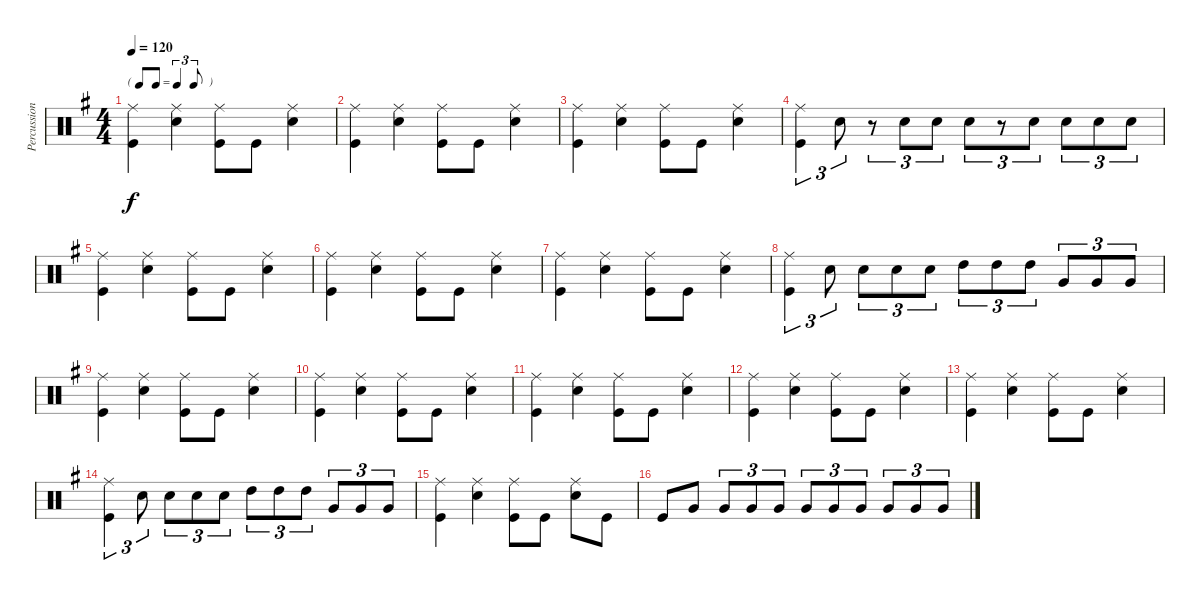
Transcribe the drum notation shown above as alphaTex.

\track ("Percussion" "Percussion") {instrument percussion}
\staff {score}
\articulation defaults
\ts (4 4)
\tf triplet8th
\tempo 120
\clef neutral
\ks g
("Ride (middle)" "Kick (hit)").4{dy f} ("Ride (middle)" "Snare (hit) 2").4 ("Ride (middle)" "Kick (hit)").8 "Kick (hit)".8 ("Ride (middle)" "Snare (hit) 2").4 |
("Ride (middle)" "Kick (hit)").4 ("Ride (middle)" "Snare (hit) 2").4 ("Ride (middle)" "Kick (hit)").8 "Kick (hit)".8 ("Ride (middle)" "Snare (hit) 2").4 |
("Ride (middle)" "Kick (hit)").4 ("Ride (middle)" "Snare (hit) 2").4 ("Ride (middle)" "Kick (hit)").8 "Kick (hit)".8 ("Ride (middle)" "Snare (hit) 2").4 |
("Ride (middle)" "Kick (hit)").4{tu (3 2)} "Snare (hit) 2".8{tu (3 2)} r.8{tu (3 2)} "Snare (hit) 2".8{tu (3 2)} "Snare (hit) 2".8{tu (3 2)} "Snare (hit) 2".8{tu (3 2)} r.8{tu (3 2)} "Snare (hit) 2".8{tu (3 2)} "Snare (hit) 2".8{tu (3 2)} "Snare (hit) 2".8{tu (3 2)} "Snare (hit) 2".8{tu (3 2)} |
("Ride (middle)" "Kick (hit)").4 ("Ride (middle)" "Snare (hit) 2").4 ("Ride (middle)" "Kick (hit)").8 "Kick (hit)".8 ("Ride (middle)" "Snare (hit) 2").4 |
("Ride (middle)" "Kick (hit)").4 ("Ride (middle)" "Snare (hit) 2").4 ("Ride (middle)" "Kick (hit)").8 "Kick (hit)".8 ("Ride (middle)" "Snare (hit) 2").4 |
("Ride (middle)" "Kick (hit)").4 ("Ride (middle)" "Snare (hit) 2").4 ("Ride (middle)" "Kick (hit)").8 "Kick (hit)".8 ("Ride (middle)" "Snare (hit) 2").4 |
("Ride (middle)" "Kick (hit)").4{tu (3 2)} "Snare (hit) 2".8{tu (3 2)} "Snare (hit) 2".8{tu (3 2)} "Snare (hit) 2".8{tu (3 2)} "Snare (hit) 2".8{tu (3 2)} "High Tom (hit)".8{tu (3 2)} "High Tom (hit)".8{tu (3 2)} "High Tom (hit)".8{tu (3 2)} "Very Low Tom (hit)".8{tu (3 2)} "Very Low Tom (hit)".8{tu (3 2)} "Very Low Tom (hit)".8{tu (3 2)} |
("Ride (middle)" "Kick (hit)").4 ("Ride (middle)" "Snare (hit) 2").4 ("Ride (middle)" "Kick (hit)").8 "Kick (hit)".8 ("Ride (middle)" "Snare (hit) 2").4 |
("Ride (middle)" "Kick (hit)").4 ("Ride (middle)" "Snare (hit) 2").4 ("Ride (middle)" "Kick (hit)").8 "Kick (hit)".8 ("Ride (middle)" "Snare (hit) 2").4 |
("Ride (middle)" "Kick (hit)").4 ("Ride (middle)" "Snare (hit) 2").4 ("Ride (middle)" "Kick (hit)").8 "Kick (hit)".8 ("Ride (middle)" "Snare (hit) 2").4 |
("Ride (middle)" "Kick (hit)").4 ("Ride (middle)" "Snare (hit) 2").4 ("Ride (middle)" "Kick (hit)").8 "Kick (hit)".8 ("Ride (middle)" "Snare (hit) 2").4 |
("Ride (middle)" "Kick (hit)").4 ("Ride (middle)" "Snare (hit) 2").4 ("Ride (middle)" "Kick (hit)").8 "Kick (hit)".8 ("Ride (middle)" "Snare (hit) 2").4 |
("Ride (middle)" "Kick (hit)").4{tu (3 2)} "Snare (hit) 2".8{tu (3 2)} "Snare (hit) 2".8{tu (3 2)} "Snare (hit) 2".8{tu (3 2)} "Snare (hit) 2".8{tu (3 2)} "High Tom (hit)".8{tu (3 2)} "High Tom (hit)".8{tu (3 2)} "High Tom (hit)".8{tu (3 2)} "Very Low Tom (hit)".8{tu (3 2)} "Very Low Tom (hit)".8{tu (3 2)} "Very Low Tom (hit)".8{tu (3 2)} |
("Ride (middle)" "Kick (hit)").4 ("Ride (middle)" "Snare (hit) 2").4 ("Ride (middle)" "Kick (hit)").8 "Kick (hit)".8 ("Ride (middle)" "Snare (hit) 2").8 "Kick (hit)".8 |
"Kick (hit)".8 "Very Low Tom (hit)".8 "Very Low Tom (hit)".8{tu (3 2)} "Very Low Tom (hit)".8{tu (3 2)} "Very Low Tom (hit)".8{tu (3 2)} "Very Low Tom (hit)".8{tu (3 2)} "Very Low Tom (hit)".8{tu (3 2)} "Very Low Tom (hit)".8{tu (3 2)} "Very Low Tom (hit)".8{tu (3 2)} "Very Low Tom (hit)".8{tu (3 2)} "Very Low Tom (hit)".8{tu (3 2)}
